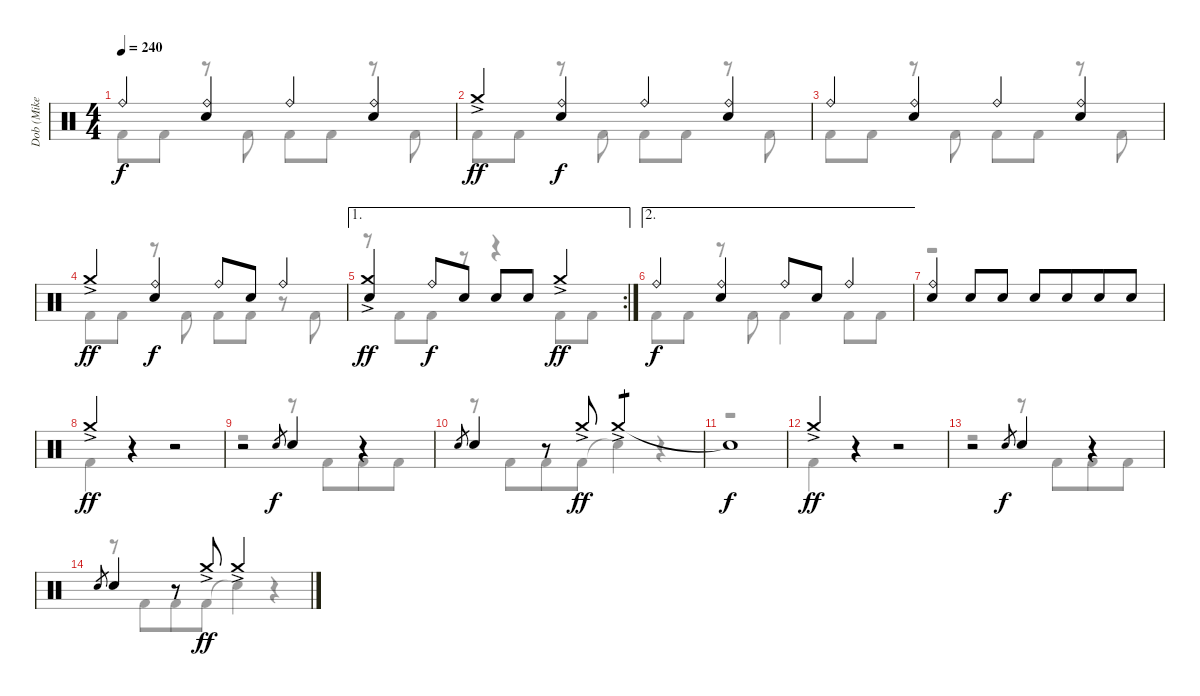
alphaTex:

\track ("Dob (Mike Terrana)" "Dob (Mike ") {instrument percussion}
\staff {score}
\articulation defaults
\voice
\ts (4 4)
\tempo 240
\clef neutral
\ks c "Ride (bell)".4{dy f}
("Ride (bell)" "Electric Snare (hit)").4 "Ride (bell)".4 ("Ride (bell)" "Electric Snare (hit)").4 |
"Crash medium (hit)"{ac}.4{dy ff} ("Ride (bell)" "Electric Snare (hit)").4{dy f} "Ride (bell)".4 ("Ride (bell)" "Electric Snare (hit)").4 |
"Ride (bell)".4 ("Ride (bell)" "Electric Snare (hit)").4 "Ride (bell)".4 ("Ride (bell)" "Electric Snare (hit)").4 |
"Crash medium (hit)"{ac}.4{dy ff} ("Ride (bell)" "Electric Snare (hit)").4{dy f} "Ride (bell)".8 "Electric Snare (hit)".8 "Ride (bell)".4 |
\ae 1
\rc 2
("Crash medium (hit)"{ac} "Electric Snare (hit)").4{dy ff} "Ride (bell)".8{dy f} "Electric Snare (hit)".8 "Electric Snare (hit)".8 "Electric Snare (hit)".8 "Crash medium (hit)"{ac}.4{dy ff} |
\ae 2 "Ride (bell)".4{dy f}
("Ride (bell)" "Electric Snare (hit)").4 "Ride (bell)".8 "Electric Snare (hit)".8 "Ride (bell)".4 |
("Ride (bell)" "Electric Snare (hit)").4 "Electric Snare (hit)".8 "Electric Snare (hit)".8 "Electric Snare (hit)".8 "Electric Snare (hit)".8{beam merge} "Electric Snare (hit)".8 "Electric Snare (hit)".8 |
"Crash medium (hit)"{ac}.4{dy ff} r.4 r.2 |
r.2 "Electric Snare (hit)".8{gr dy f} "Electric Snare (hit)".4 r.4 |
"Electric Snare (hit)".8{gr} "Electric Snare (hit)".4 r.8 "Crash medium (hit)"{ac}.8{dy ff} "Crash medium (hit)"{ac}.2{tp 1} |
"Snare (hit)"{t}.1{dy f} |
"Crash medium (hit)"{ac}.4{dy ff} r.4 r.2 |
r.2 "Electric Snare (hit)".8{gr dy f} "Electric Snare (hit)".4 r.4 |
"Electric Snare (hit)".8{gr} "Electric Snare (hit)".4 r.8 "Crash medium (hit)"{ac}.8{dy ff} "Crash medium (hit)"{ac}.2 |
\voice
\clef neutral
\ottava regular
\simile none
\ks c "Kick (hit) 2".8{dy f} "Kick (hit) 2".8
r.8 "Kick (hit) 2".8 "Kick (hit) 2".8 "Kick (hit) 2".8 r.8 "Kick (hit) 2".8 |
"Kick (hit) 2".8 "Kick (hit) 2".8 r.8 "Kick (hit) 2".8 "Kick (hit) 2".8 "Kick (hit) 2".8 r.8 "Kick (hit) 2".8 |
"Kick (hit) 2".8 "Kick (hit) 2".8 r.8 "Kick (hit) 2".8 "Kick (hit) 2".8 "Kick (hit) 2".8 r.8 "Kick (hit) 2".8 |
"Kick (hit) 2".8 "Kick (hit) 2".8 r.8 "Kick (hit) 2".8 "Kick (hit) 2".8 "Kick (hit) 2".8 r.8 "Kick (hit) 2".8 |
r.8 "Kick (hit) 2".8{beam merge} "Kick (hit) 2".8 r.8 r.4 "Kick (hit) 2".8 "Kick (hit) 2".8 |
"Kick (hit) 2".8 "Kick (hit) 2".8 r.8 "Kick (hit) 2".8 "Kick (hit) 2".4 "Kick (hit) 2".8 "Kick (hit) 2".8 |
r.1 |
"Kick (hit) 2".4 r.4 r.2 |
r.2 r.8 "Kick (hit) 2".8{beam merge} "Kick (hit) 2".8 "Kick (hit) 2".8 |
r.8 "Kick (hit) 2".8{beam merge} "Kick (hit) 2".8 "Kick (hit) 2".8 "Snare (hit)"{t}.4 r.4 |
r.1 |
"Kick (hit) 2".4 r.4 r.2 |
r.2 r.8 "Kick (hit) 2".8{beam merge} "Kick (hit) 2".8 "Kick (hit) 2".8 |
r.8 "Kick (hit) 2".8{beam merge} "Kick (hit) 2".8 "Kick (hit) 2".8 "Snare (hit)"{t}.4 r.4 |
